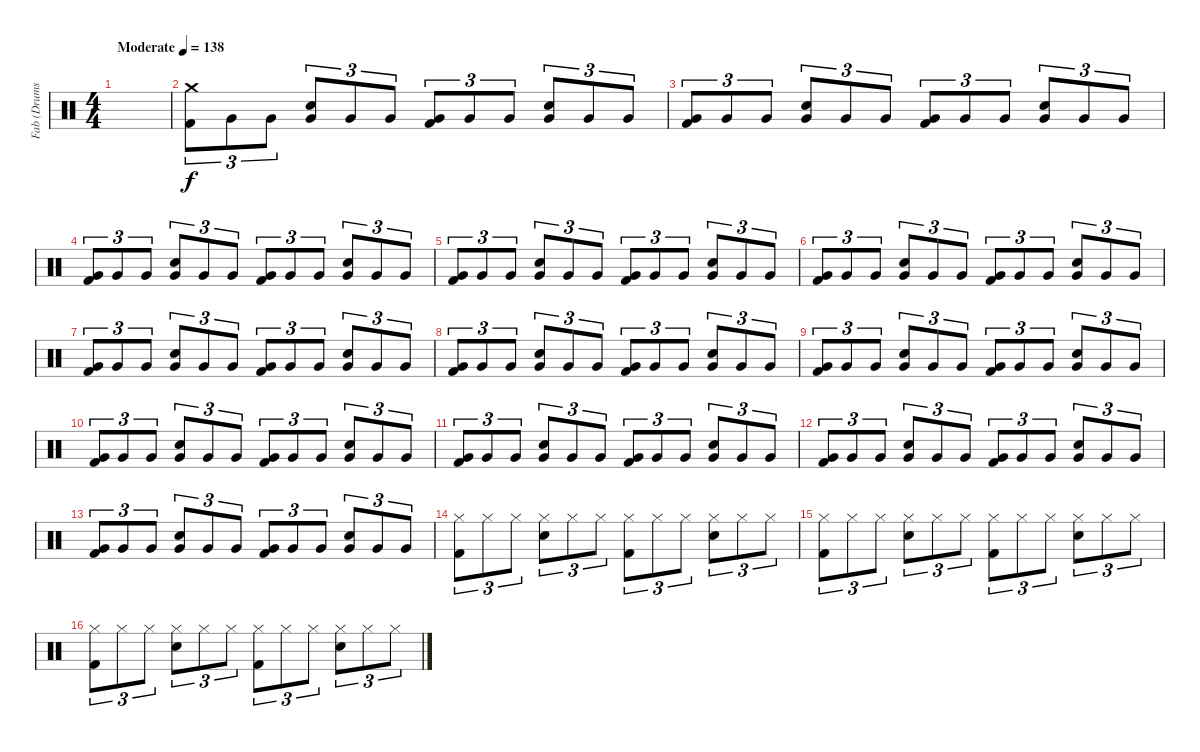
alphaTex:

\track ("Fab (Drums)" "Fab (Drums") {instrument percussion}
\staff {score}
\articulation defaults
\ts (4 4)
\tempo (138 "Moderate")
\clef neutral
\ks c
|
("Crash medium (hit)" "Kick (hit) 2").8{tu (3 2)} "Very Low Tom (hit)".8{tu (3 2)} "Very Low Tom (hit)".8{tu (3 2)} ("Very Low Tom (hit)" "Electric Snare (hit)").8{tu (3 2)} "Very Low Tom (hit)".8{tu (3 2)} "Very Low Tom (hit)".8{tu (3 2)} ("Very Low Tom (hit)" "Kick (hit) 2").8{tu (3 2)} "Very Low Tom (hit)".8{tu (3 2)} "Very Low Tom (hit)".8{tu (3 2)} ("Very Low Tom (hit)" "Electric Snare (hit)").8{tu (3 2)} "Very Low Tom (hit)".8{tu (3 2)} "Very Low Tom (hit)".8{tu (3 2)} |
("Very Low Tom (hit)" "Kick (hit) 2").8{tu (3 2)} "Very Low Tom (hit)".8{tu (3 2)} "Very Low Tom (hit)".8{tu (3 2)} ("Very Low Tom (hit)" "Electric Snare (hit)").8{tu (3 2)} "Very Low Tom (hit)".8{tu (3 2)} "Very Low Tom (hit)".8{tu (3 2)} ("Very Low Tom (hit)" "Kick (hit) 2").8{tu (3 2)} "Very Low Tom (hit)".8{tu (3 2)} "Very Low Tom (hit)".8{tu (3 2)} ("Very Low Tom (hit)" "Electric Snare (hit)").8{tu (3 2)} "Very Low Tom (hit)".8{tu (3 2)} "Very Low Tom (hit)".8{tu (3 2)} |
("Very Low Tom (hit)" "Kick (hit) 2").8{tu (3 2)} "Very Low Tom (hit)".8{tu (3 2)} "Very Low Tom (hit)".8{tu (3 2)} ("Very Low Tom (hit)" "Electric Snare (hit)").8{tu (3 2)} "Very Low Tom (hit)".8{tu (3 2)} "Very Low Tom (hit)".8{tu (3 2)} ("Very Low Tom (hit)" "Kick (hit) 2").8{tu (3 2)} "Very Low Tom (hit)".8{tu (3 2)} "Very Low Tom (hit)".8{tu (3 2)} ("Very Low Tom (hit)" "Electric Snare (hit)").8{tu (3 2)} "Very Low Tom (hit)".8{tu (3 2)} "Very Low Tom (hit)".8{tu (3 2)} |
("Very Low Tom (hit)" "Kick (hit) 2").8{tu (3 2)} "Very Low Tom (hit)".8{tu (3 2)} "Very Low Tom (hit)".8{tu (3 2)} ("Very Low Tom (hit)" "Electric Snare (hit)").8{tu (3 2)} "Very Low Tom (hit)".8{tu (3 2)} "Very Low Tom (hit)".8{tu (3 2)} ("Very Low Tom (hit)" "Kick (hit) 2").8{tu (3 2)} "Very Low Tom (hit)".8{tu (3 2)} "Very Low Tom (hit)".8{tu (3 2)} ("Very Low Tom (hit)" "Electric Snare (hit)").8{tu (3 2)} "Very Low Tom (hit)".8{tu (3 2)} "Very Low Tom (hit)".8{tu (3 2)} |
("Very Low Tom (hit)" "Kick (hit) 2").8{tu (3 2)} "Very Low Tom (hit)".8{tu (3 2)} "Very Low Tom (hit)".8{tu (3 2)} ("Very Low Tom (hit)" "Electric Snare (hit)").8{tu (3 2)} "Very Low Tom (hit)".8{tu (3 2)} "Very Low Tom (hit)".8{tu (3 2)} ("Very Low Tom (hit)" "Kick (hit) 2").8{tu (3 2)} "Very Low Tom (hit)".8{tu (3 2)} "Very Low Tom (hit)".8{tu (3 2)} ("Very Low Tom (hit)" "Electric Snare (hit)").8{tu (3 2)} "Very Low Tom (hit)".8{tu (3 2)} "Very Low Tom (hit)".8{tu (3 2)} |
("Very Low Tom (hit)" "Kick (hit) 2").8{tu (3 2)} "Very Low Tom (hit)".8{tu (3 2)} "Very Low Tom (hit)".8{tu (3 2)} ("Very Low Tom (hit)" "Electric Snare (hit)").8{tu (3 2)} "Very Low Tom (hit)".8{tu (3 2)} "Very Low Tom (hit)".8{tu (3 2)} ("Very Low Tom (hit)" "Kick (hit) 2").8{tu (3 2)} "Very Low Tom (hit)".8{tu (3 2)} "Very Low Tom (hit)".8{tu (3 2)} ("Very Low Tom (hit)" "Electric Snare (hit)").8{tu (3 2)} "Very Low Tom (hit)".8{tu (3 2)} "Very Low Tom (hit)".8{tu (3 2)} |
("Very Low Tom (hit)" "Kick (hit) 2").8{tu (3 2)} "Very Low Tom (hit)".8{tu (3 2)} "Very Low Tom (hit)".8{tu (3 2)} ("Very Low Tom (hit)" "Electric Snare (hit)").8{tu (3 2)} "Very Low Tom (hit)".8{tu (3 2)} "Very Low Tom (hit)".8{tu (3 2)} ("Very Low Tom (hit)" "Kick (hit) 2").8{tu (3 2)} "Very Low Tom (hit)".8{tu (3 2)} "Very Low Tom (hit)".8{tu (3 2)} ("Very Low Tom (hit)" "Electric Snare (hit)").8{tu (3 2)} "Very Low Tom (hit)".8{tu (3 2)} "Very Low Tom (hit)".8{tu (3 2)} |
("Very Low Tom (hit)" "Kick (hit) 2").8{tu (3 2)} "Very Low Tom (hit)".8{tu (3 2)} "Very Low Tom (hit)".8{tu (3 2)} ("Very Low Tom (hit)" "Electric Snare (hit)").8{tu (3 2)} "Very Low Tom (hit)".8{tu (3 2)} "Very Low Tom (hit)".8{tu (3 2)} ("Very Low Tom (hit)" "Kick (hit) 2").8{tu (3 2)} "Very Low Tom (hit)".8{tu (3 2)} "Very Low Tom (hit)".8{tu (3 2)} ("Very Low Tom (hit)" "Electric Snare (hit)").8{tu (3 2)} "Very Low Tom (hit)".8{tu (3 2)} "Very Low Tom (hit)".8{tu (3 2)} |
("Very Low Tom (hit)" "Kick (hit) 2").8{tu (3 2)} "Very Low Tom (hit)".8{tu (3 2)} "Very Low Tom (hit)".8{tu (3 2)} ("Very Low Tom (hit)" "Electric Snare (hit)").8{tu (3 2)} "Very Low Tom (hit)".8{tu (3 2)} "Very Low Tom (hit)".8{tu (3 2)} ("Very Low Tom (hit)" "Kick (hit) 2").8{tu (3 2)} "Very Low Tom (hit)".8{tu (3 2)} "Very Low Tom (hit)".8{tu (3 2)} ("Very Low Tom (hit)" "Electric Snare (hit)").8{tu (3 2)} "Very Low Tom (hit)".8{tu (3 2)} "Very Low Tom (hit)".8{tu (3 2)} |
("Very Low Tom (hit)" "Kick (hit) 2").8{tu (3 2)} "Very Low Tom (hit)".8{tu (3 2)} "Very Low Tom (hit)".8{tu (3 2)} ("Very Low Tom (hit)" "Electric Snare (hit)").8{tu (3 2)} "Very Low Tom (hit)".8{tu (3 2)} "Very Low Tom (hit)".8{tu (3 2)} ("Very Low Tom (hit)" "Kick (hit) 2").8{tu (3 2)} "Very Low Tom (hit)".8{tu (3 2)} "Very Low Tom (hit)".8{tu (3 2)} ("Very Low Tom (hit)" "Electric Snare (hit)").8{tu (3 2)} "Very Low Tom (hit)".8{tu (3 2)} "Very Low Tom (hit)".8{tu (3 2)} |
("Very Low Tom (hit)" "Kick (hit) 2").8{tu (3 2)} "Very Low Tom (hit)".8{tu (3 2)} "Very Low Tom (hit)".8{tu (3 2)} ("Very Low Tom (hit)" "Electric Snare (hit)").8{tu (3 2)} "Very Low Tom (hit)".8{tu (3 2)} "Very Low Tom (hit)".8{tu (3 2)} ("Very Low Tom (hit)" "Kick (hit) 2").8{tu (3 2)} "Very Low Tom (hit)".8{tu (3 2)} "Very Low Tom (hit)".8{tu (3 2)} ("Very Low Tom (hit)" "Electric Snare (hit)").8{tu (3 2)} "Very Low Tom (hit)".8{tu (3 2)} "Very Low Tom (hit)".8{tu (3 2)} |
("Very Low Tom (hit)" "Kick (hit) 2").8{tu (3 2)} "Very Low Tom (hit)".8{tu (3 2)} "Very Low Tom (hit)".8{tu (3 2)} ("Very Low Tom (hit)" "Electric Snare (hit)").8{tu (3 2)} "Very Low Tom (hit)".8{tu (3 2)} "Very Low Tom (hit)".8{tu (3 2)} ("Very Low Tom (hit)" "Kick (hit) 2").8{tu (3 2)} "Very Low Tom (hit)".8{tu (3 2)} "Very Low Tom (hit)".8{tu (3 2)} ("Very Low Tom (hit)" "Electric Snare (hit)").8{tu (3 2)} "Very Low Tom (hit)".8{tu (3 2)} "Very Low Tom (hit)".8{tu (3 2)} |
("Hi-Hat (closed)" "Kick (hit) 2").8{tu (3 2)} "Hi-Hat (closed)".8{tu (3 2)} "Hi-Hat (closed)".8{tu (3 2)} ("Hi-Hat (closed)" "Electric Snare (hit)").8{tu (3 2)} "Hi-Hat (closed)".8{tu (3 2)} "Hi-Hat (closed)".8{tu (3 2)} ("Hi-Hat (closed)" "Kick (hit) 2").8{tu (3 2)} "Hi-Hat (closed)".8{tu (3 2)} "Hi-Hat (closed)".8{tu (3 2)} ("Hi-Hat (closed)" "Electric Snare (hit)").8{tu (3 2)} "Hi-Hat (closed)".8{tu (3 2)} "Hi-Hat (closed)".8{tu (3 2)} |
("Hi-Hat (closed)" "Kick (hit) 2").8{tu (3 2)} "Hi-Hat (closed)".8{tu (3 2)} "Hi-Hat (closed)".8{tu (3 2)} ("Hi-Hat (closed)" "Electric Snare (hit)").8{tu (3 2)} "Hi-Hat (closed)".8{tu (3 2)} "Hi-Hat (closed)".8{tu (3 2)} ("Hi-Hat (closed)" "Kick (hit) 2").8{tu (3 2)} "Hi-Hat (closed)".8{tu (3 2)} "Hi-Hat (closed)".8{tu (3 2)} ("Hi-Hat (closed)" "Electric Snare (hit)").8{tu (3 2)} "Hi-Hat (closed)".8{tu (3 2)} "Hi-Hat (closed)".8{tu (3 2)} |
("Hi-Hat (closed)" "Kick (hit) 2").8{tu (3 2)} "Hi-Hat (closed)".8{tu (3 2)} "Hi-Hat (closed)".8{tu (3 2)} ("Hi-Hat (closed)" "Electric Snare (hit)").8{tu (3 2)} "Hi-Hat (closed)".8{tu (3 2)} "Hi-Hat (closed)".8{tu (3 2)} ("Hi-Hat (closed)" "Kick (hit) 2").8{tu (3 2)} "Hi-Hat (closed)".8{tu (3 2)} "Hi-Hat (closed)".8{tu (3 2)} ("Hi-Hat (closed)" "Electric Snare (hit)").8{tu (3 2)} "Hi-Hat (closed)".8{tu (3 2)} "Hi-Hat (closed)".8{tu (3 2)}
